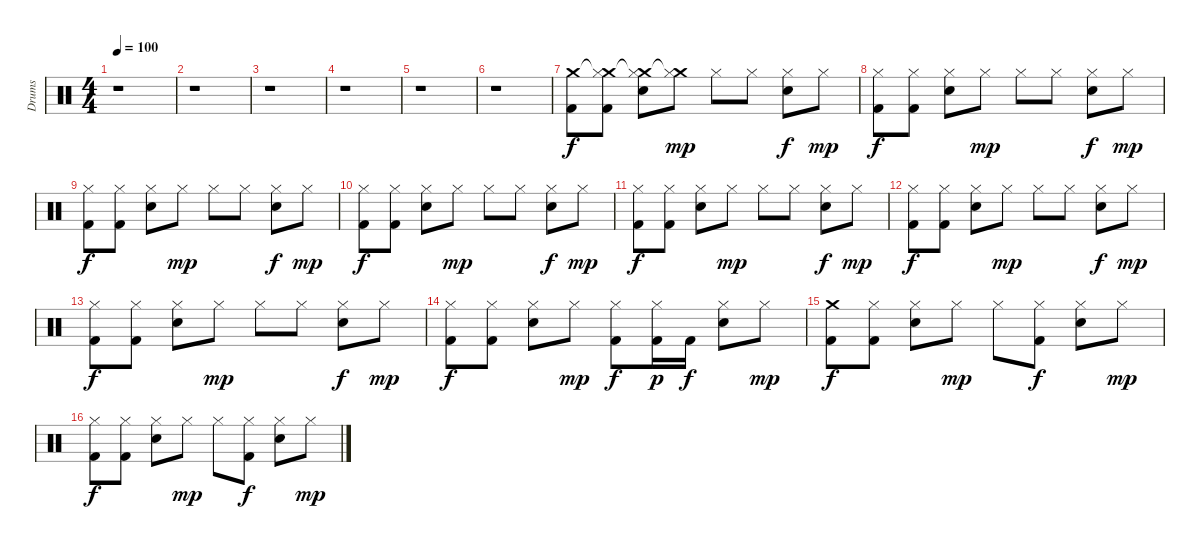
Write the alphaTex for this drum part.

\track ("Drums" "Drums") {instrument percussion}
\staff {score}
\articulation defaults
\ts (4 4)
\tempo 100
\clef neutral
\ks c
r.1{dy f} |
r.1 |
r.1 |
r.1 |
r.1 |
r.1 |
("Crash medium (hit)" "Kick (hit) 2").8 ("Crash medium (hit)"{t} "Hi-Hat (closed)" "Kick (hit) 2").8 ("Crash medium (hit)"{t} "Hi-Hat (closed)" "Electric Snare (hit)").8 ("Crash medium (hit)"{t} "Hi-Hat (closed)").8{dy mp} "Hi-Hat (closed)".8 "Hi-Hat (closed)".8 ("Hi-Hat (closed)" "Electric Snare (hit)").8{dy f} "Hi-Hat (closed)".8{dy mp} |
("Hi-Hat (closed)" "Kick (hit) 2").8{dy f} ("Hi-Hat (closed)" "Kick (hit) 2").8 ("Hi-Hat (closed)" "Electric Snare (hit)").8 "Hi-Hat (closed)".8{dy mp} "Hi-Hat (closed)".8 "Hi-Hat (closed)".8 ("Hi-Hat (closed)" "Electric Snare (hit)").8{dy f} "Hi-Hat (closed)".8{dy mp} |
("Hi-Hat (closed)" "Kick (hit) 2").8{dy f} ("Hi-Hat (closed)" "Kick (hit) 2").8 ("Hi-Hat (closed)" "Electric Snare (hit)").8 "Hi-Hat (closed)".8{dy mp} "Hi-Hat (closed)".8 "Hi-Hat (closed)".8 ("Hi-Hat (closed)" "Electric Snare (hit)").8{dy f} "Hi-Hat (closed)".8{dy mp} |
("Hi-Hat (closed)" "Kick (hit) 2").8{dy f} ("Hi-Hat (closed)" "Kick (hit) 2").8 ("Hi-Hat (closed)" "Electric Snare (hit)").8 "Hi-Hat (closed)".8{dy mp} "Hi-Hat (closed)".8 "Hi-Hat (closed)".8 ("Hi-Hat (closed)" "Electric Snare (hit)").8{dy f} "Hi-Hat (closed)".8{dy mp} |
("Hi-Hat (closed)" "Kick (hit) 2").8{dy f} ("Hi-Hat (closed)" "Kick (hit) 2").8 ("Hi-Hat (closed)" "Electric Snare (hit)").8 "Hi-Hat (closed)".8{dy mp} "Hi-Hat (closed)".8 "Hi-Hat (closed)".8 ("Hi-Hat (closed)" "Electric Snare (hit)").8{dy f} "Hi-Hat (closed)".8{dy mp} |
("Hi-Hat (closed)" "Kick (hit) 2").8{dy f} ("Hi-Hat (closed)" "Kick (hit) 2").8 ("Hi-Hat (closed)" "Electric Snare (hit)").8 "Hi-Hat (closed)".8{dy mp} "Hi-Hat (closed)".8 "Hi-Hat (closed)".8 ("Hi-Hat (closed)" "Electric Snare (hit)").8{dy f} "Hi-Hat (closed)".8{dy mp} |
("Hi-Hat (closed)" "Kick (hit) 2").8{dy f} ("Hi-Hat (closed)" "Kick (hit) 2").8 ("Hi-Hat (closed)" "Electric Snare (hit)").8 "Hi-Hat (closed)".8{dy mp} "Hi-Hat (closed)".8 "Hi-Hat (closed)".8 ("Hi-Hat (closed)" "Electric Snare (hit)").8{dy f} "Hi-Hat (closed)".8{dy mp} |
("Hi-Hat (closed)" "Kick (hit) 2").8{dy f} ("Hi-Hat (closed)" "Kick (hit) 2").8 ("Hi-Hat (closed)" "Electric Snare (hit)").8 "Hi-Hat (closed)".8{dy mp} ("Hi-Hat (closed)" "Kick (hit) 2").8{dy f} ("Hi-Hat (closed)" "Kick (hit) 2").16{dy p} "Kick (hit) 2".16{dy f} ("Hi-Hat (closed)" "Electric Snare (hit)").8 "Hi-Hat (closed)".8{dy mp} |
("Crash medium (hit)" "Kick (hit) 2").8{dy f} ("Hi-Hat (closed)" "Kick (hit) 2").8 ("Hi-Hat (closed)" "Electric Snare (hit)").8 "Hi-Hat (closed)".8{dy mp} "Hi-Hat (closed)".8 ("Hi-Hat (closed)" "Kick (hit) 2").8{dy f} ("Hi-Hat (closed)" "Electric Snare (hit)").8 "Hi-Hat (closed)".8{dy mp} |
("Hi-Hat (closed)" "Kick (hit) 2").8{dy f} ("Hi-Hat (closed)" "Kick (hit) 2").8 ("Hi-Hat (closed)" "Electric Snare (hit)").8 "Hi-Hat (closed)".8{dy mp} "Hi-Hat (closed)".8 ("Hi-Hat (closed)" "Kick (hit) 2").8{dy f} ("Hi-Hat (closed)" "Electric Snare (hit)").8 "Hi-Hat (closed)".8{dy mp}
